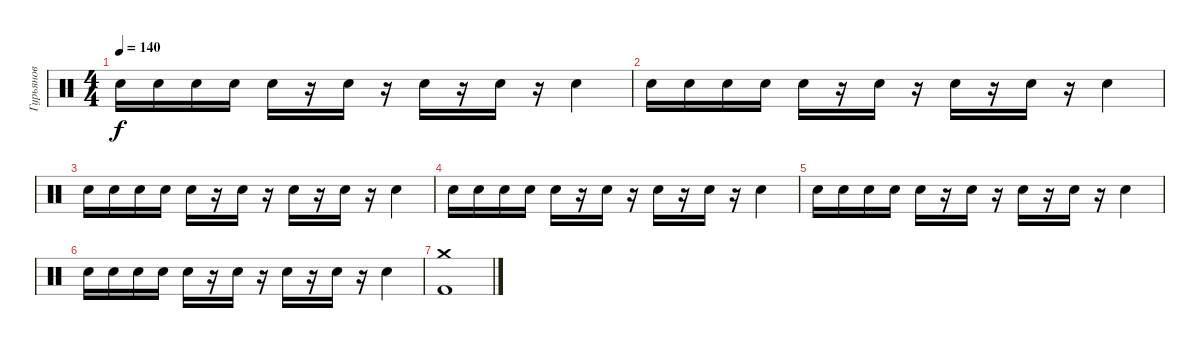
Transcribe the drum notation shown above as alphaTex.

\track ("Гурьянов" "Гурьянов") {instrument percussion}
\staff {score}
\articulation defaults
\ts (4 4)
\tempo 140
\clef neutral
\ks c "Snare (hit) 2".16{dy f} "Snare (hit) 2".16 "Snare (hit) 2".16 "Snare (hit) 2".16 "Snare (hit) 2".16
r.16 "Snare (hit) 2".16 r.16 "Snare (hit) 2".16 r.16 "Snare (hit) 2".16 r.16 "Snare (hit) 2".4 |
"Snare (hit) 2".16 "Snare (hit) 2".16 "Snare (hit) 2".16 "Snare (hit) 2".16 "Snare (hit) 2".16 r.16 "Snare (hit) 2".16 r.16 "Snare (hit) 2".16 r.16 "Snare (hit) 2".16 r.16 "Snare (hit) 2".4 |
"Snare (hit) 2".16 "Snare (hit) 2".16 "Snare (hit) 2".16 "Snare (hit) 2".16 "Snare (hit) 2".16 r.16 "Snare (hit) 2".16 r.16 "Snare (hit) 2".16 r.16 "Snare (hit) 2".16 r.16 "Snare (hit) 2".4 |
"Snare (hit) 2".16 "Snare (hit) 2".16 "Snare (hit) 2".16 "Snare (hit) 2".16 "Snare (hit) 2".16 r.16 "Snare (hit) 2".16 r.16 "Snare (hit) 2".16 r.16 "Snare (hit) 2".16 r.16 "Snare (hit) 2".4 |
"Snare (hit) 2".16 "Snare (hit) 2".16 "Snare (hit) 2".16 "Snare (hit) 2".16 "Snare (hit) 2".16 r.16 "Snare (hit) 2".16 r.16 "Snare (hit) 2".16 r.16 "Snare (hit) 2".16 r.16 "Snare (hit) 2".4 |
"Snare (hit) 2".16 "Snare (hit) 2".16 "Snare (hit) 2".16 "Snare (hit) 2".16 "Snare (hit) 2".16 r.16 "Snare (hit) 2".16 r.16 "Snare (hit) 2".16 r.16 "Snare (hit) 2".16 r.16 "Snare (hit) 2".4 |
("Crash medium (hit)" "Kick (hit) 2").1
